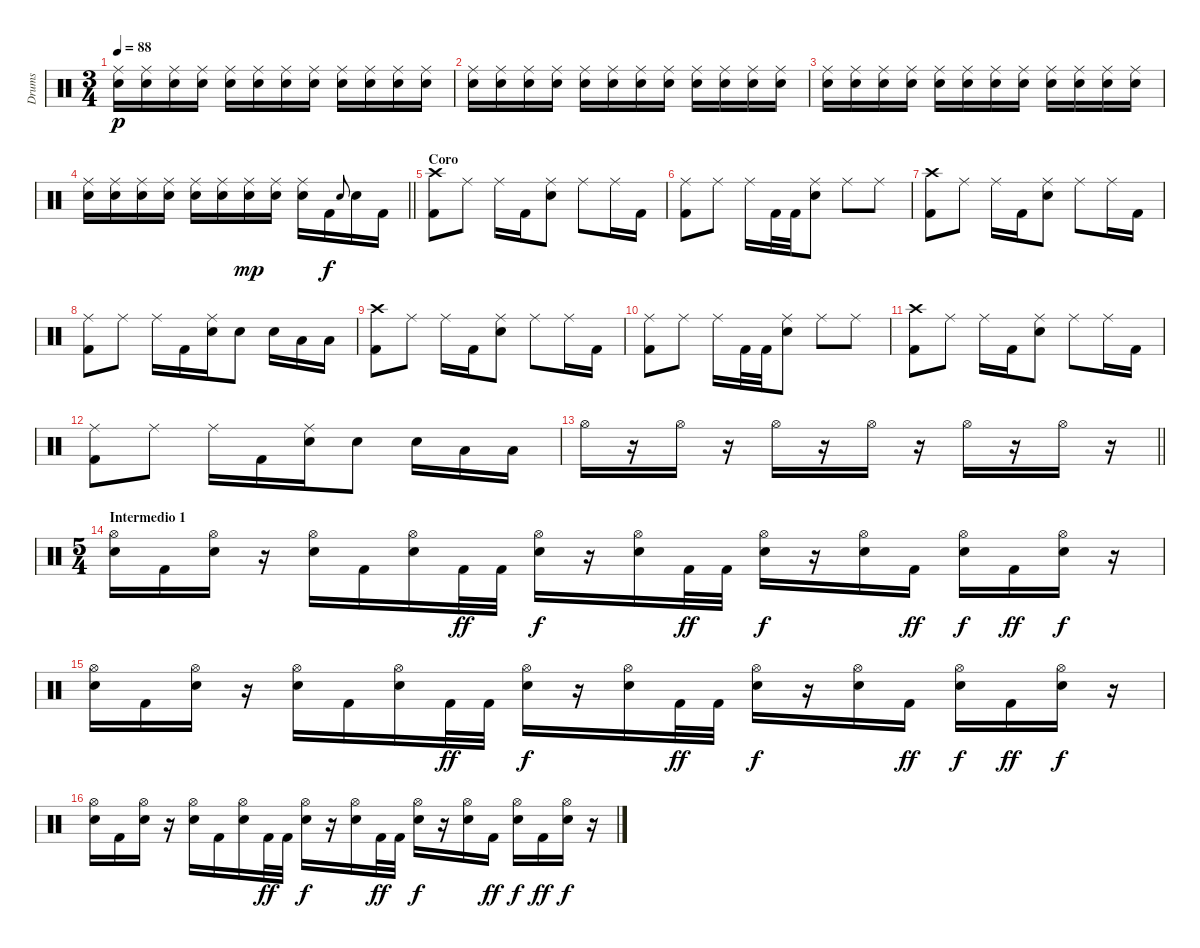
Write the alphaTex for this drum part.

\track ("Drums" "Drums") {instrument percussion}
\staff {score}
\articulation defaults
\ts (3 4)
\tempo 88
\clef neutral
\ks c
("Ride (middle)" "Snare (hit) 2").16{dy p} ("Ride (middle)" "Snare (hit) 2").16 ("Ride (middle)" "Snare (hit) 2").16 ("Ride (middle)" "Snare (hit) 2").16 ("Ride (middle)" "Snare (hit) 2").16 ("Ride (middle)" "Snare (hit) 2").16 ("Ride (middle)" "Snare (hit) 2").16 ("Ride (middle)" "Snare (hit) 2").16 ("Ride (middle)" "Snare (hit) 2").16 ("Ride (middle)" "Snare (hit) 2").16 ("Ride (middle)" "Snare (hit) 2").16 ("Ride (middle)" "Snare (hit) 2").16 |
("Ride (middle)" "Snare (hit) 2").16 ("Ride (middle)" "Snare (hit) 2").16 ("Ride (middle)" "Snare (hit) 2").16 ("Ride (middle)" "Snare (hit) 2").16 ("Ride (middle)" "Snare (hit) 2").16 ("Ride (middle)" "Snare (hit) 2").16 ("Ride (middle)" "Snare (hit) 2").16 ("Ride (middle)" "Snare (hit) 2").16 ("Ride (middle)" "Snare (hit) 2").16 ("Ride (middle)" "Snare (hit) 2").16 ("Ride (middle)" "Snare (hit) 2").16 ("Ride (middle)" "Snare (hit) 2").16 |
("Ride (middle)" "Snare (hit) 2").16 ("Ride (middle)" "Snare (hit) 2").16 ("Ride (middle)" "Snare (hit) 2").16 ("Ride (middle)" "Snare (hit) 2").16 ("Ride (middle)" "Snare (hit) 2").16 ("Ride (middle)" "Snare (hit) 2").16 ("Ride (middle)" "Snare (hit) 2").16 ("Ride (middle)" "Snare (hit) 2").16 ("Ride (middle)" "Snare (hit) 2").16 ("Ride (middle)" "Snare (hit) 2").16 ("Ride (middle)" "Snare (hit) 2").16 ("Ride (middle)" "Snare (hit) 2").16 |
\barLineRight lightlight
("Ride (middle)" "Snare (hit) 2").16 ("Ride (middle)" "Snare (hit) 2").16 ("Ride (middle)" "Snare (hit) 2").16 ("Ride (middle)" "Snare (hit) 2").16 ("Ride (middle)" "Snare (hit) 2").16 ("Ride (middle)" "Snare (hit) 2").16 ("Ride (middle)" "Snare (hit) 2").16{dy mp} ("Ride (middle)" "Snare (hit) 2").16 ("Ride (middle)" "Snare (hit) 2").16 "Kick (hit) 2".16{dy f} "Snare (hit) 2".8{gr onbeat} "Snare (hit) 2".16 "Kick (hit) 2".16 |
\section ("" "Coro")
("Crash high (hit)" "Kick (hit) 2").8 "Ride (middle)".8 "Ride (middle)".16 "Kick (hit) 2".16 ("Ride (middle)" "Snare (hit) 2").8 "Ride (middle)".8 "Ride (middle)".16 "Kick (hit) 2".16 |
("Ride (middle)" "Kick (hit) 2").8 "Ride (middle)".8 "Ride (middle)".16 "Kick (hit) 2".32 "Kick (hit) 2".32 ("Ride (middle)" "Snare (hit) 2").8 "Ride (middle)".8 "Ride (middle)".8 |
("Crash high (hit)" "Kick (hit) 2").8 "Ride (middle)".8 "Ride (middle)".16 "Kick (hit) 2".16 ("Ride (middle)" "Snare (hit) 2").8 "Ride (middle)".8 "Ride (middle)".16 "Kick (hit) 2".16 |
("Ride (middle)" "Kick (hit) 2").8 "Ride (middle)".8 "Ride (middle)".16 "Kick (hit) 2".16 ("Ride (middle)" "Snare (hit) 2").16 "Snare (hit) 2".8 "Snare (hit) 2".16 "Low Tom (hit)".16 "Low Tom (hit)".16 |
("Crash high (hit)" "Kick (hit) 2").8 "Ride (middle)".8 "Ride (middle)".16 "Kick (hit) 2".16 ("Ride (middle)" "Snare (hit) 2").8 "Ride (middle)".8 "Ride (middle)".16 "Kick (hit) 2".16 |
("Ride (middle)" "Kick (hit) 2").8 "Ride (middle)".8 "Ride (middle)".16 "Kick (hit) 2".32 "Kick (hit) 2".32 ("Ride (middle)" "Snare (hit) 2").8 "Ride (middle)".8 "Ride (middle)".8 |
("Crash high (hit)" "Kick (hit) 2").8 "Ride (middle)".8 "Ride (middle)".16 "Kick (hit) 2".16 ("Ride (middle)" "Snare (hit) 2").8 "Ride (middle)".8 "Ride (middle)".16 "Kick (hit) 2".16 |
("Ride (middle)" "Kick (hit) 2").8 "Ride (middle)".8 "Ride (middle)".16 "Kick (hit) 2".16 ("Ride (middle)" "Snare (hit) 2").16 "Snare (hit) 2".8 "Snare (hit) 2".16 "Low Tom (hit)".16 "Low Tom (hit)".16 |
\barLineRight lightlight "Hi-Hat (open)".16
r.16 "Hi-Hat (open)".16 r.16 "Hi-Hat (open)".16 r.16 "Hi-Hat (open)".16 r.16 "Hi-Hat (open)".16 r.16 "Hi-Hat (open)".16 r.16 |
\ts (5 4)
\section ("" "Intermedio 1")
("Hi-Hat (open)" "Snare (hit) 2").16 "Kick (hit) 2".16 ("Hi-Hat (open)" "Snare (hit) 2").16 r.16 ("Hi-Hat (open)" "Snare (hit) 2").16 "Kick (hit) 2".16 ("Hi-Hat (open)" "Snare (hit) 2").16 "Kick (hit) 2".32{dy ff} "Kick (hit) 2".32 ("Hi-Hat (open)" "Snare (hit) 2").16{dy f} r.16 ("Hi-Hat (open)" "Snare (hit) 2").16 "Kick (hit) 2".32{dy ff} "Kick (hit) 2".32 ("Hi-Hat (open)" "Snare (hit) 2").16{dy f} r.16 ("Hi-Hat (open)" "Snare (hit) 2").16 "Kick (hit) 2".16{dy ff} ("Hi-Hat (open)" "Snare (hit) 2").16{dy f} "Kick (hit) 2".16{dy ff} ("Hi-Hat (open)" "Snare (hit) 2").16{dy f} r.16 |
("Hi-Hat (open)" "Snare (hit) 2").16 "Kick (hit) 2".16 ("Hi-Hat (open)" "Snare (hit) 2").16 r.16 ("Hi-Hat (open)" "Snare (hit) 2").16 "Kick (hit) 2".16 ("Hi-Hat (open)" "Snare (hit) 2").16 "Kick (hit) 2".32{dy ff} "Kick (hit) 2".32 ("Hi-Hat (open)" "Snare (hit) 2").16{dy f} r.16 ("Hi-Hat (open)" "Snare (hit) 2").16 "Kick (hit) 2".32{dy ff} "Kick (hit) 2".32 ("Hi-Hat (open)" "Snare (hit) 2").16{dy f} r.16 ("Hi-Hat (open)" "Snare (hit) 2").16 "Kick (hit) 2".16{dy ff} ("Hi-Hat (open)" "Snare (hit) 2").16{dy f} "Kick (hit) 2".16{dy ff} ("Hi-Hat (open)" "Snare (hit) 2").16{dy f} r.16 |
("Hi-Hat (open)" "Snare (hit) 2").16 "Kick (hit) 2".16 ("Hi-Hat (open)" "Snare (hit) 2").16 r.16 ("Hi-Hat (open)" "Snare (hit) 2").16 "Kick (hit) 2".16 ("Hi-Hat (open)" "Snare (hit) 2").16 "Kick (hit) 2".32{dy ff} "Kick (hit) 2".32 ("Hi-Hat (open)" "Snare (hit) 2").16{dy f} r.16 ("Hi-Hat (open)" "Snare (hit) 2").16 "Kick (hit) 2".32{dy ff} "Kick (hit) 2".32 ("Hi-Hat (open)" "Snare (hit) 2").16{dy f} r.16 ("Hi-Hat (open)" "Snare (hit) 2").16 "Kick (hit) 2".16{dy ff} ("Hi-Hat (open)" "Snare (hit) 2").16{dy f} "Kick (hit) 2".16{dy ff} ("Hi-Hat (open)" "Snare (hit) 2").16{dy f} r.16
